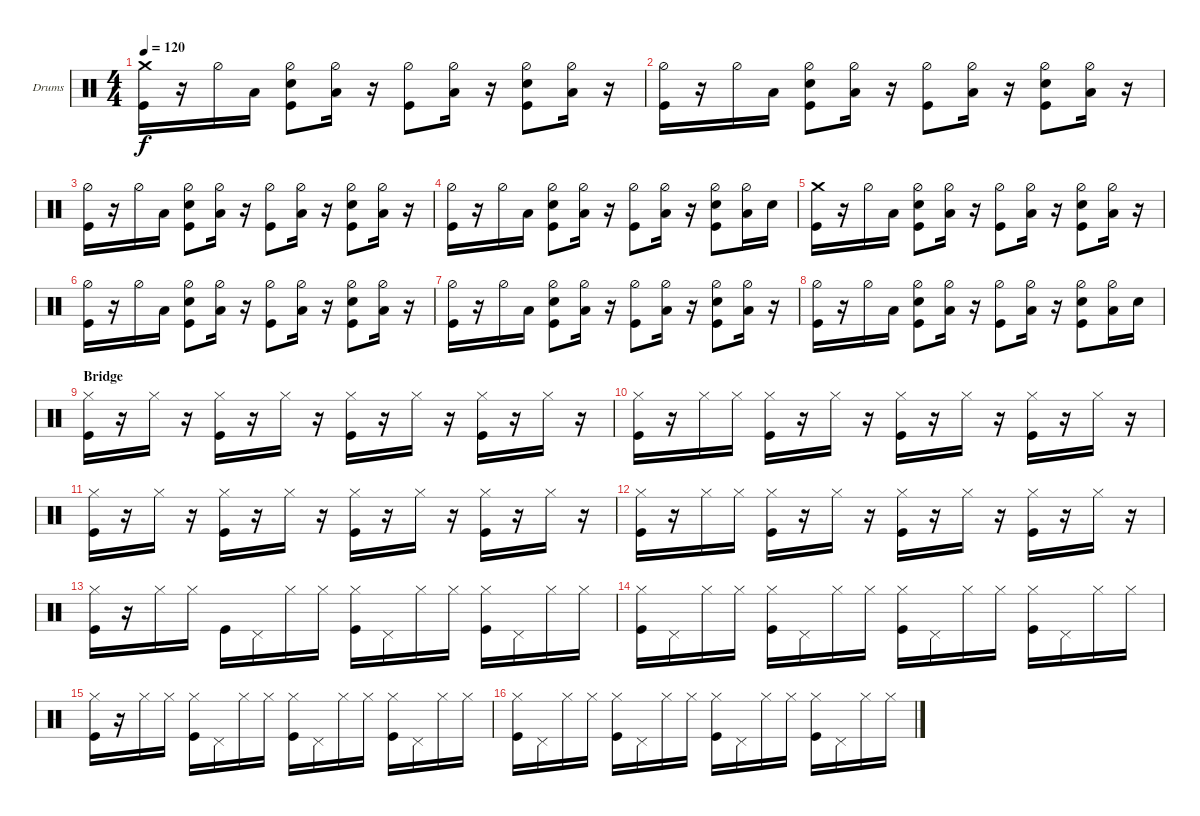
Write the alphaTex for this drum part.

\defaultSystemsLayout 4
\bracketExtendMode groupsimilarinstruments
\firstSystemTrackNameOrientation horizontal
\otherSystemsTrackNameOrientation horizontal
\track ("Drums" "Drums") {instrument percussion}
\staff {score}
\articulation defaults
\ts (4 4)
\tempo 120
\clef neutral
\ks c
("Kick (hit)" "Crash medium (hit)").16{dy f} r.16 "Hi-Hat (half)".16 "Low Tom (hit)".16 ("Kick (hit)" "Snare (hit) 2" "Hi-Hat (half)").8 ("Low Tom (hit)" "Hi-Hat (half)").16 r.16 ("Kick (hit)" "Hi-Hat (half)").8 ("Low Tom (hit)" "Hi-Hat (half)").16 r.16 ("Kick (hit)" "Snare (hit) 2" "Hi-Hat (half)").8 ("Low Tom (hit)" "Hi-Hat (half)").16 r.16 |
("Kick (hit)" "Hi-Hat (half)").16 r.16 "Hi-Hat (half)".16 "Low Tom (hit)".16 ("Kick (hit)" "Snare (hit) 2" "Hi-Hat (half)").8 ("Low Tom (hit)" "Hi-Hat (half)").16 r.16 ("Kick (hit)" "Hi-Hat (half)").8 ("Low Tom (hit)" "Hi-Hat (half)").16 r.16 ("Kick (hit)" "Snare (hit) 2" "Hi-Hat (half)").8 ("Low Tom (hit)" "Hi-Hat (half)").16 r.16 |
("Kick (hit)" "Hi-Hat (half)").16 r.16 "Hi-Hat (half)".16 "Low Tom (hit)".16 ("Kick (hit)" "Snare (hit) 2" "Hi-Hat (half)").8 ("Low Tom (hit)" "Hi-Hat (half)").16 r.16 ("Kick (hit)" "Hi-Hat (half)").8 ("Low Tom (hit)" "Hi-Hat (half)").16 r.16 ("Kick (hit)" "Snare (hit) 2" "Hi-Hat (half)").8 ("Low Tom (hit)" "Hi-Hat (half)").16 r.16 |
("Kick (hit)" "Hi-Hat (half)").16 r.16 "Hi-Hat (half)".16 "Low Tom (hit)".16 ("Kick (hit)" "Snare (hit) 2" "Hi-Hat (half)").8 ("Low Tom (hit)" "Hi-Hat (half)").16 r.16 ("Kick (hit)" "Hi-Hat (half)").8 ("Low Tom (hit)" "Hi-Hat (half)").16 r.16 ("Kick (hit)" "Snare (hit) 2" "Hi-Hat (half)").8 ("Low Tom (hit)" "Hi-Hat (half)").16 "Snare (hit) 2".16 |
("Kick (hit)" "Crash medium (hit)").16 r.16 "Hi-Hat (half)".16 "Low Tom (hit)".16 ("Kick (hit)" "Snare (hit) 2" "Hi-Hat (half)").8 ("Low Tom (hit)" "Hi-Hat (half)").16 r.16 ("Kick (hit)" "Hi-Hat (half)").8 ("Low Tom (hit)" "Hi-Hat (half)").16 r.16 ("Kick (hit)" "Snare (hit) 2" "Hi-Hat (half)").8 ("Low Tom (hit)" "Hi-Hat (half)").16 r.16 |
("Kick (hit)" "Hi-Hat (half)").16 r.16 "Hi-Hat (half)".16 "Low Tom (hit)".16 ("Kick (hit)" "Snare (hit) 2" "Hi-Hat (half)").8 ("Low Tom (hit)" "Hi-Hat (half)").16 r.16 ("Kick (hit)" "Hi-Hat (half)").8 ("Low Tom (hit)" "Hi-Hat (half)").16 r.16 ("Kick (hit)" "Snare (hit) 2" "Hi-Hat (half)").8 ("Low Tom (hit)" "Hi-Hat (half)").16 r.16 |
("Kick (hit)" "Hi-Hat (half)").16 r.16 "Hi-Hat (half)".16 "Low Tom (hit)".16 ("Kick (hit)" "Snare (hit) 2" "Hi-Hat (half)").8 ("Low Tom (hit)" "Hi-Hat (half)").16 r.16 ("Kick (hit)" "Hi-Hat (half)").8 ("Low Tom (hit)" "Hi-Hat (half)").16 r.16 ("Kick (hit)" "Snare (hit) 2" "Hi-Hat (half)").8 ("Low Tom (hit)" "Hi-Hat (half)").16 r.16 |
("Kick (hit)" "Hi-Hat (half)").16 r.16 "Hi-Hat (half)".16 "Low Tom (hit)".16 ("Kick (hit)" "Snare (hit) 2" "Hi-Hat (half)").8 ("Low Tom (hit)" "Hi-Hat (half)").16 r.16 ("Kick (hit)" "Hi-Hat (half)").8 ("Low Tom (hit)" "Hi-Hat (half)").16 r.16 ("Kick (hit)" "Snare (hit) 2" "Hi-Hat (half)").8 ("Low Tom (hit)" "Hi-Hat (half)").16 "Snare (hit) 2".16 |
\section ("" "Bridge")
("Hi-Hat (closed)" "Kick (hit)").16 r.16 "Hi-Hat (closed)".16 r.16 ("Kick (hit)" "Hi-Hat (closed)").16 r.16 "Hi-Hat (closed)".16 r.16 ("Kick (hit)" "Hi-Hat (closed)").16 r.16 "Hi-Hat (closed)".16 r.16 ("Kick (hit)" "Hi-Hat (closed)").16 r.16 "Hi-Hat (closed)".16 r.16 |
("Hi-Hat (closed)" "Kick (hit)").16 r.16 "Hi-Hat (closed)".16 "Hi-Hat (closed)".16 ("Kick (hit)" "Hi-Hat (closed)").16 r.16 "Hi-Hat (closed)".16 r.16 ("Kick (hit)" "Hi-Hat (closed)").16 r.16 "Hi-Hat (closed)".16 r.16 ("Kick (hit)" "Hi-Hat (closed)").16 r.16 "Hi-Hat (closed)".16 r.16 |
("Hi-Hat (closed)" "Kick (hit)").16 r.16 "Hi-Hat (closed)".16 r.16 ("Kick (hit)" "Hi-Hat (closed)").16 r.16 "Hi-Hat (closed)".16 r.16 ("Kick (hit)" "Hi-Hat (closed)").16 r.16 "Hi-Hat (closed)".16 r.16 ("Kick (hit)" "Hi-Hat (closed)").16 r.16 "Hi-Hat (closed)".16 r.16 |
("Hi-Hat (closed)" "Kick (hit)").16 r.16 "Hi-Hat (closed)".16 "Hi-Hat (closed)".16 ("Kick (hit)" "Hi-Hat (closed)").16 r.16 "Hi-Hat (closed)".16 r.16 ("Kick (hit)" "Hi-Hat (closed)").16 r.16 "Hi-Hat (closed)".16 r.16 ("Kick (hit)" "Hi-Hat (closed)").16 r.16 "Hi-Hat (closed)".16 r.16 |
("Hi-Hat (closed)" "Kick (hit)").16 r.16 "Hi-Hat (closed)".16 "Hi-Hat (closed)".16 "Kick (hit)".16 "Pedal Hi-Hat (hit)".16 "Hi-Hat (closed)".16 "Hi-Hat (closed)".16 ("Kick (hit)" "Hi-Hat (closed)").16 "Pedal Hi-Hat (hit)".16 "Hi-Hat (closed)".16 "Hi-Hat (closed)".16 ("Kick (hit)" "Hi-Hat (closed)").16 "Pedal Hi-Hat (hit)".16 "Hi-Hat (closed)".16 "Hi-Hat (closed)".16 |
("Hi-Hat (closed)" "Kick (hit)").16 "Pedal Hi-Hat (hit)".16 "Hi-Hat (closed)".16 "Hi-Hat (closed)".16 ("Kick (hit)" "Hi-Hat (closed)").16 "Pedal Hi-Hat (hit)".16 "Hi-Hat (closed)".16 "Hi-Hat (closed)".16 ("Kick (hit)" "Hi-Hat (closed)").16 "Pedal Hi-Hat (hit)".16 "Hi-Hat (closed)".16 "Hi-Hat (closed)".16 ("Kick (hit)" "Hi-Hat (closed)").16 "Pedal Hi-Hat (hit)".16 "Hi-Hat (closed)".16 "Hi-Hat (closed)".16 |
("Hi-Hat (closed)" "Kick (hit)").16 r.16 "Hi-Hat (closed)".16 "Hi-Hat (closed)".16 ("Kick (hit)" "Hi-Hat (closed)").16 "Pedal Hi-Hat (hit)".16 "Hi-Hat (closed)".16 "Hi-Hat (closed)".16 ("Kick (hit)" "Hi-Hat (closed)").16 "Pedal Hi-Hat (hit)".16 "Hi-Hat (closed)".16 "Hi-Hat (closed)".16 ("Kick (hit)" "Hi-Hat (closed)").16 "Pedal Hi-Hat (hit)".16 "Hi-Hat (closed)".16 "Hi-Hat (closed)".16 |
("Hi-Hat (closed)" "Kick (hit)").16 "Pedal Hi-Hat (hit)".16 "Hi-Hat (closed)".16 "Hi-Hat (closed)".16 ("Kick (hit)" "Hi-Hat (closed)").16 "Pedal Hi-Hat (hit)".16 "Hi-Hat (closed)".16 "Hi-Hat (closed)".16 ("Kick (hit)" "Hi-Hat (closed)").16 "Pedal Hi-Hat (hit)".16 "Hi-Hat (closed)".16 "Hi-Hat (closed)".16 ("Kick (hit)" "Hi-Hat (closed)").16 "Pedal Hi-Hat (hit)".16 "Hi-Hat (closed)".16 "Hi-Hat (closed)".16
